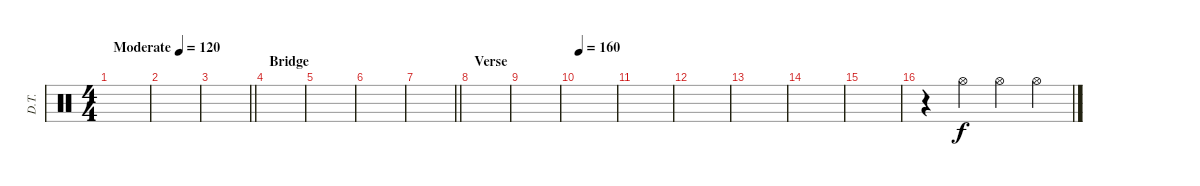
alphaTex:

\track ("D.T." "D.T.") {instrument percussion}
\staff {score}
\articulation defaults
\ts (4 4)
\tempo (120 "Moderate")
\tempo 200
\tempo (120 "Moderate")
\clef neutral
\ks c
|
|
\barLineRight lightlight
|
\section ("" "Bridge")
|
|
|
\barLineRight lightlight
|
\section ("" "Verse ")
|
|
\tempo 160
|
|
|
|
|
|
r.4 "Hi-Hat (open)".4 "Hi-Hat (open)".4 "Hi-Hat (open)".4
